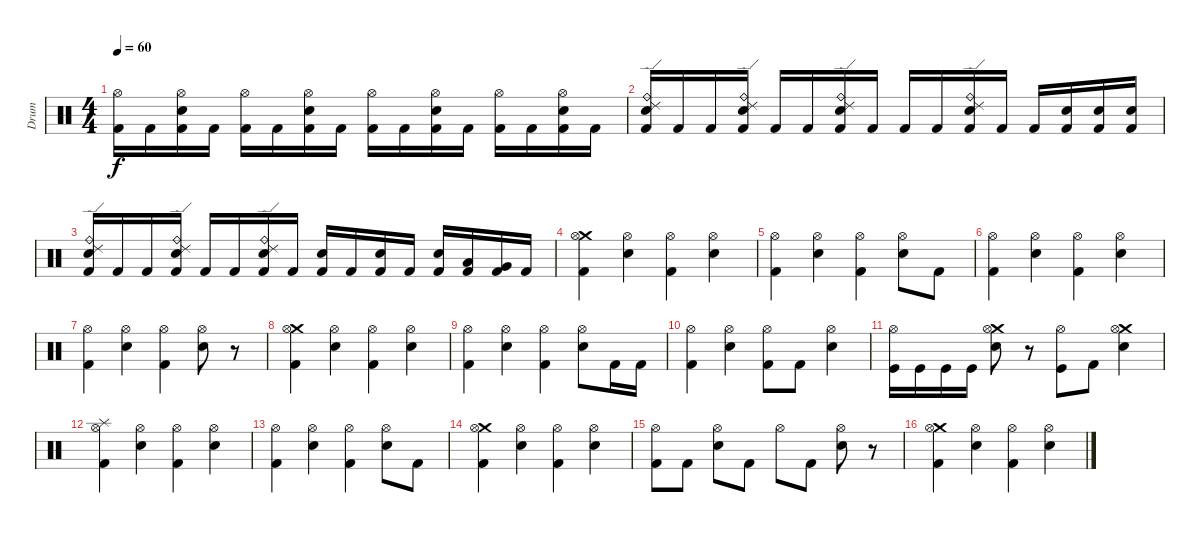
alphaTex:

\track ("Drum" "Drum") {instrument percussion}
\staff {score}
\articulation defaults
\ts (4 4)
\tempo 60
\clef neutral
\ks c
("Hi-Hat (open)" "Kick (hit) 2").16{dy f} "Kick (hit) 2".16 ("Electric Snare (hit)" "Hi-Hat (open)" "Kick (hit) 2").16 "Kick (hit) 2".16 ("Hi-Hat (open)" "Kick (hit) 2").16 "Kick (hit) 2".16 ("Electric Snare (hit)" "Hi-Hat (open)" "Kick (hit) 2").16 "Kick (hit) 2".16 ("Hi-Hat (open)" "Kick (hit) 2").16 "Kick (hit) 2".16 ("Electric Snare (hit)" "Hi-Hat (open)" "Kick (hit) 2").16 "Kick (hit) 2".16 ("Hi-Hat (open)" "Kick (hit) 2").16 "Kick (hit) 2".16 ("Electric Snare (hit)" "Hi-Hat (open)" "Kick (hit) 2").16 "Kick (hit) 2".16 |
("Electric Snare (hit)" "Ride (bell)" "Ride (edge) 2" "Kick (hit) 2").16 "Kick (hit) 2".16 "Kick (hit) 2".16 ("Electric Snare (hit)" "Ride (bell)" "Ride (edge) 2" "Kick (hit) 2").16 "Kick (hit) 2".16 "Kick (hit) 2".16 ("Electric Snare (hit)" "Ride (bell)" "Ride (edge) 2" "Kick (hit) 2").16 "Kick (hit) 2".16 "Kick (hit) 2".16 "Kick (hit) 2".16 ("Electric Snare (hit)" "Ride (bell)" "Ride (edge) 2" "Kick (hit) 2").16 "Kick (hit) 2".16 "Kick (hit) 2".16 ("Electric Snare (hit)" "Kick (hit) 2").16 ("Electric Snare (hit)" "Kick (hit) 2").16 ("Electric Snare (hit)" "Kick (hit) 2").16 |
("Ride (bell)" "Electric Snare (hit)" "Ride (edge) 2" "Kick (hit) 2").16 "Kick (hit) 2".16 "Kick (hit) 2".16 ("Ride (bell)" "Electric Snare (hit)" "Ride (edge) 2" "Kick (hit) 2").16 "Kick (hit) 2".16 "Kick (hit) 2".16 ("Ride (bell)" "Electric Snare (hit)" "Ride (edge) 2" "Kick (hit) 2").16 "Kick (hit) 2".16 ("Electric Snare (hit)" "Kick (hit) 2").16 "Kick (hit) 2".16 ("Electric Snare (hit)" "Kick (hit) 2").16 "Kick (hit) 2".16 ("Electric Snare (hit)" "Kick (hit) 2").16 ("Low Tom (hit)" "Kick (hit) 2").16 ("Very Low Tom (hit)" "Kick (hit) 2").16 "Kick (hit) 2".16 |
("Crash medium (hit)" "Kick (hit) 2" "Hi-Hat (open)").4 ("Electric Snare (hit)" "Hi-Hat (open)").4 ("Kick (hit) 2" "Hi-Hat (open)").4 ("Electric Snare (hit)" "Hi-Hat (open)").4 |
("Kick (hit) 2" "Hi-Hat (open)").4 ("Electric Snare (hit)" "Hi-Hat (open)").4 ("Kick (hit) 2" "Hi-Hat (open)").4 ("Electric Snare (hit)" "Hi-Hat (open)").8 "Kick (hit) 2".8 |
("Kick (hit) 2" "Hi-Hat (open)").4 ("Electric Snare (hit)" "Hi-Hat (open)").4 ("Kick (hit) 2" "Hi-Hat (open)").4 ("Electric Snare (hit)" "Hi-Hat (open)").4 |
("Kick (hit) 2" "Hi-Hat (open)").4 ("Electric Snare (hit)" "Hi-Hat (open)").4 ("Kick (hit) 2" "Hi-Hat (open)").4 ("Hi-Hat (open)" "Electric Snare (hit)").8 r.8 |
("Crash medium (hit)" "Kick (hit) 2" "Hi-Hat (open)").4 ("Electric Snare (hit)" "Hi-Hat (open)").4 ("Kick (hit) 2" "Hi-Hat (open)").4 ("Electric Snare (hit)" "Hi-Hat (open)").4 |
("Kick (hit) 2" "Hi-Hat (open)").4 ("Electric Snare (hit)" "Hi-Hat (open)").4 ("Kick (hit) 2" "Hi-Hat (open)").4 ("Electric Snare (hit)" "Hi-Hat (open)").8 "Kick (hit) 2".16 "Kick (hit) 2".16 |
("Kick (hit) 2" "Hi-Hat (open)").4 ("Electric Snare (hit)" "Hi-Hat (open)").4 ("Kick (hit) 2" "Hi-Hat (open)").8 "Kick (hit) 2".8 ("Electric Snare (hit)" "Hi-Hat (open)").4 |
("Kick (hit)" "Hi-Hat (open)").16 "Kick (hit)".16 "Kick (hit)".16 "Kick (hit)".16 ("Crash medium (hit)" "Electric Snare (hit)" "Hi-Hat (open)").8 r.8 ("Kick (hit)" "Hi-Hat (open)").8 "Kick (hit) 2".8 ("Electric Snare (hit)" "Crash medium (hit)" "Hi-Hat (open)").4 |
("Splash (hit)" "Kick (hit) 2" "Hi-Hat (open)").4 ("Electric Snare (hit)" "Hi-Hat (open)").4 ("Kick (hit) 2" "Hi-Hat (open)").4 ("Electric Snare (hit)" "Hi-Hat (open)").4 |
("Kick (hit) 2" "Hi-Hat (open)").4 ("Electric Snare (hit)" "Hi-Hat (open)").4 ("Kick (hit) 2" "Hi-Hat (open)").4 ("Electric Snare (hit)" "Hi-Hat (open)").8 "Kick (hit) 2".8 |
("Crash medium (hit)" "Kick (hit) 2" "Hi-Hat (open)").4 ("Electric Snare (hit)" "Hi-Hat (open)").4 ("Kick (hit) 2" "Hi-Hat (open)").4 ("Electric Snare (hit)" "Hi-Hat (open)").4 |
("Kick (hit) 2" "Hi-Hat (open)").8 "Kick (hit) 2".8 ("Electric Snare (hit)" "Hi-Hat (open)").8 "Kick (hit) 2".8 "Hi-Hat (open)".8 "Kick (hit) 2".8 ("Electric Snare (hit)" "Hi-Hat (open)").8 r.8 |
("Crash medium (hit)" "Kick (hit) 2" "Hi-Hat (open)").4 ("Electric Snare (hit)" "Hi-Hat (open)").4 ("Kick (hit) 2" "Hi-Hat (open)").4 ("Electric Snare (hit)" "Hi-Hat (open)").4
